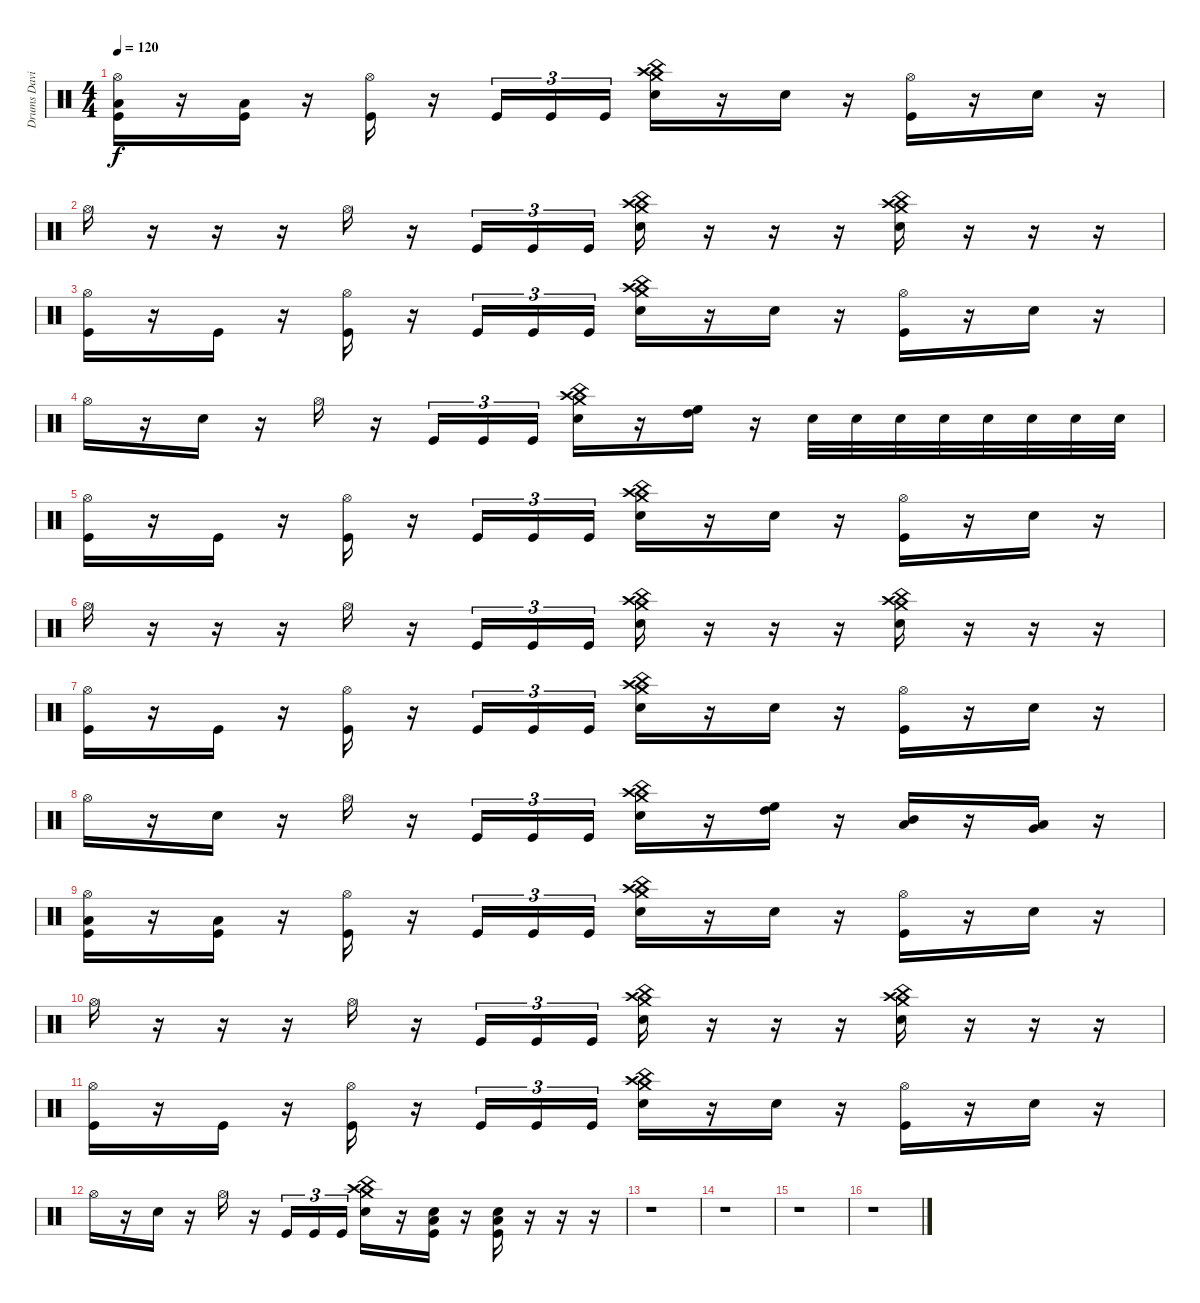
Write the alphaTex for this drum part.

\track ("Drums David" "Drums Davi") {instrument percussion}
\staff {score}
\articulation defaults
\ts (4 4)
\tempo 120
\clef neutral
\ks c
("Hi-Hat (open)" "Low Floor Tom (hit)" "Kick (hit)").16{dy f} r.16 ("Low Floor Tom (hit)" "Kick (hit)").16 r.16 ("Hi-Hat (open)" "Kick (hit)").16 r.16 "Kick (hit)".16{tu (3 2)} "Kick (hit)".16{tu (3 2)} "Kick (hit)".16{tu (3 2)} ("China (hit)" "Crash high (hit)" "Crash medium (hit)" "Electric Snare (hit)").16 r.16 "Electric Snare (hit)".16 r.16 ("Hi-Hat (open)" "Kick (hit)").16 r.16 "Electric Snare (hit)".16 r.16 |
"Hi-Hat (open)".16 r.16 r.16 r.16 "Hi-Hat (open)".16 r.16 "Kick (hit)".16{tu (3 2)} "Kick (hit)".16{tu (3 2)} "Kick (hit)".16{tu (3 2)} ("China (hit)" "Crash high (hit)" "Crash medium (hit)" "Electric Snare (hit)").16 r.16 r.16 r.16 ("China (hit)" "Crash high (hit)" "Crash medium (hit)" "Electric Snare (hit)").16 r.16 r.16 r.16 |
("Hi-Hat (open)" "Kick (hit)").16 r.16 "Kick (hit)".16 r.16 ("Hi-Hat (open)" "Kick (hit)").16 r.16 "Kick (hit)".16{tu (3 2)} "Kick (hit)".16{tu (3 2)} "Kick (hit)".16{tu (3 2)} ("China (hit)" "Crash high (hit)" "Crash medium (hit)" "Electric Snare (hit)").16 r.16 "Electric Snare (hit)".16 r.16 ("Hi-Hat (open)" "Kick (hit)").16 r.16 "Electric Snare (hit)".16 r.16 |
"Hi-Hat (open)".16 r.16 "Electric Snare (hit)".16 r.16 "Hi-Hat (open)".16 r.16 "Kick (hit)".16{tu (3 2)} "Kick (hit)".16{tu (3 2)} "Kick (hit)".16{tu (3 2)} ("China (hit)" "Crash high (hit)" "Crash medium (hit)" "Electric Snare (hit)").16 r.16 ("High Floor Tom (hit)" "High Tom (hit)").16 r.16 "Electric Snare (hit)".32 "Electric Snare (hit)".32 "Electric Snare (hit)".32 "Electric Snare (hit)".32 "Electric Snare (hit)".32 "Electric Snare (hit)".32 "Electric Snare (hit)".32 "Electric Snare (hit)".32 |
("Hi-Hat (open)" "Kick (hit)").16 r.16 "Kick (hit)".16 r.16 ("Hi-Hat (open)" "Kick (hit)").16 r.16 "Kick (hit)".16{tu (3 2)} "Kick (hit)".16{tu (3 2)} "Kick (hit)".16{tu (3 2)} ("China (hit)" "Crash high (hit)" "Crash medium (hit)" "Electric Snare (hit)").16 r.16 "Electric Snare (hit)".16 r.16 ("Hi-Hat (open)" "Kick (hit)").16 r.16 "Electric Snare (hit)".16 r.16 |
"Hi-Hat (open)".16 r.16 r.16 r.16 "Hi-Hat (open)".16 r.16 "Kick (hit)".16{tu (3 2)} "Kick (hit)".16{tu (3 2)} "Kick (hit)".16{tu (3 2)} ("China (hit)" "Crash high (hit)" "Crash medium (hit)" "Electric Snare (hit)").16 r.16 r.16 r.16 ("China (hit)" "Crash high (hit)" "Crash medium (hit)" "Electric Snare (hit)").16 r.16 r.16 r.16 |
("Hi-Hat (open)" "Kick (hit)").16 r.16 "Kick (hit)".16 r.16 ("Hi-Hat (open)" "Kick (hit)").16 r.16 "Kick (hit)".16{tu (3 2)} "Kick (hit)".16{tu (3 2)} "Kick (hit)".16{tu (3 2)} ("China (hit)" "Crash high (hit)" "Crash medium (hit)" "Electric Snare (hit)").16 r.16 "Electric Snare (hit)".16 r.16 ("Hi-Hat (open)" "Kick (hit)").16 r.16 "Electric Snare (hit)".16 r.16 |
"Hi-Hat (open)".16 r.16 "Electric Snare (hit)".16 r.16 "Hi-Hat (open)".16 r.16 "Kick (hit)".16{tu (3 2)} "Kick (hit)".16{tu (3 2)} "Kick (hit)".16{tu (3 2)} ("China (hit)" "Crash high (hit)" "Crash medium (hit)" "Electric Snare (hit)").16 r.16 ("High Floor Tom (hit)" "High Tom (hit)").16 r.16 ("Mid Tom (hit)" "Low Tom (hit)").16 r.16 ("Very Low Tom (hit)" "Low Floor Tom (hit)").16 r.16 |
("Hi-Hat (open)" "Low Floor Tom (hit)" "Kick (hit)").16 r.16 ("Low Floor Tom (hit)" "Kick (hit)").16 r.16 ("Hi-Hat (open)" "Kick (hit)").16 r.16 "Kick (hit)".16{tu (3 2)} "Kick (hit)".16{tu (3 2)} "Kick (hit)".16{tu (3 2)} ("China (hit)" "Crash high (hit)" "Crash medium (hit)" "Electric Snare (hit)").16 r.16 "Electric Snare (hit)".16 r.16 ("Hi-Hat (open)" "Kick (hit)").16 r.16 "Electric Snare (hit)".16 r.16 |
"Hi-Hat (open)".16 r.16 r.16 r.16 "Hi-Hat (open)".16 r.16 "Kick (hit)".16{tu (3 2)} "Kick (hit)".16{tu (3 2)} "Kick (hit)".16{tu (3 2)} ("China (hit)" "Crash high (hit)" "Crash medium (hit)" "Electric Snare (hit)").16 r.16 r.16 r.16 ("China (hit)" "Crash high (hit)" "Crash medium (hit)" "Electric Snare (hit)").16 r.16 r.16 r.16 |
("Hi-Hat (open)" "Kick (hit)").16 r.16 "Kick (hit)".16 r.16 ("Hi-Hat (open)" "Kick (hit)").16 r.16 "Kick (hit)".16{tu (3 2)} "Kick (hit)".16{tu (3 2)} "Kick (hit)".16{tu (3 2)} ("China (hit)" "Crash high (hit)" "Crash medium (hit)" "Electric Snare (hit)").16 r.16 "Electric Snare (hit)".16 r.16 ("Hi-Hat (open)" "Kick (hit)").16 r.16 "Electric Snare (hit)".16 r.16 |
"Hi-Hat (open)".16 r.16 "Electric Snare (hit)".16 r.16 "Hi-Hat (open)".16 r.16 "Kick (hit)".16{tu (3 2)} "Kick (hit)".16{tu (3 2)} "Kick (hit)".16{tu (3 2)} ("China (hit)" "Crash high (hit)" "Crash medium (hit)" "Electric Snare (hit)").16 r.16 ("Low Floor Tom (hit)" "Electric Snare (hit)" "Kick (hit)").16 r.16 ("Low Floor Tom (hit)" "Electric Snare (hit)" "Kick (hit)").16 r.16 r.16 r.16 |
r.1 |
r.1 |
r.1 |
r.1
